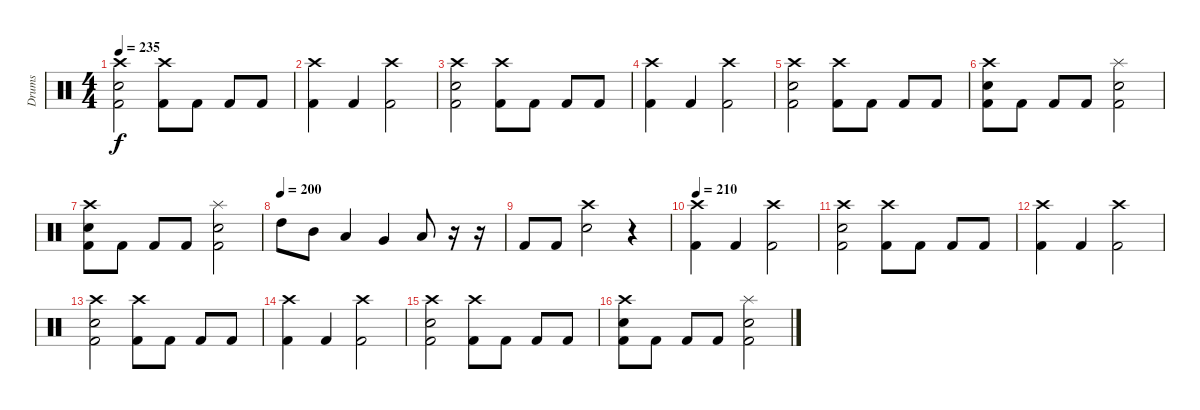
\track ("Drums" "Drums") {instrument percussion}
\staff {score}
\articulation defaults
\ts (4 4)
\tempo 235
\clef neutral
\ks c
("Crash high (hit)" "Snare (hit) 2" "Kick (hit) 2").2{dy f} ("Crash high (hit)" "Kick (hit) 2").8 "Kick (hit) 2".8 "Kick (hit) 2".8 "Kick (hit) 2".8 |
("Crash high (hit)" "Kick (hit) 2").4 "Kick (hit) 2".4 ("Crash high (hit)" "Kick (hit) 2").2 |
("Crash high (hit)" "Snare (hit) 2" "Kick (hit) 2").2 ("Crash high (hit)" "Kick (hit) 2").8 "Kick (hit) 2".8 "Kick (hit) 2".8 "Kick (hit) 2".8 |
("Crash high (hit)" "Kick (hit) 2").4 "Kick (hit) 2".4 ("Crash high (hit)" "Kick (hit) 2").2 |
("Crash high (hit)" "Snare (hit) 2" "Kick (hit) 2").2 ("Crash high (hit)" "Kick (hit) 2").8 "Kick (hit) 2".8 "Kick (hit) 2".8 "Kick (hit) 2".8 |
("Crash high (hit)" "Snare (hit) 2" "Kick (hit) 2").8 "Kick (hit) 2".8 "Kick (hit) 2".8 "Kick (hit) 2".8 ("Splash (hit)" "Snare (hit) 2" "Kick (hit) 2").2 |
("Crash high (hit)" "Snare (hit) 2" "Kick (hit) 2").8 "Kick (hit) 2".8 "Kick (hit) 2".8 "Kick (hit) 2".8 ("Splash (hit)" "Snare (hit) 2" "Kick (hit) 2").2 |
\tempo (200)
"High Tom (hit)".8 "Mid Tom (hit)".8 "Low Tom (hit)".4 "Very Low Tom (hit)".4 "Low Tom (hit)".8 r.16 r.16 |
"Kick (hit) 2".8 "Kick (hit) 2".8 ("Crash high (hit)" "Snare (hit) 2").2 r.4 |
\tempo 210
("Crash high (hit)" "Kick (hit) 2").4 "Kick (hit) 2".4 ("Crash high (hit)" "Kick (hit) 2").2 |
("Crash high (hit)" "Snare (hit) 2" "Kick (hit) 2").2 ("Crash high (hit)" "Kick (hit) 2").8 "Kick (hit) 2".8 "Kick (hit) 2".8 "Kick (hit) 2".8 |
("Crash high (hit)" "Kick (hit) 2").4 "Kick (hit) 2".4 ("Crash high (hit)" "Kick (hit) 2").2 |
("Crash high (hit)" "Snare (hit) 2" "Kick (hit) 2").2 ("Crash high (hit)" "Kick (hit) 2").8 "Kick (hit) 2".8 "Kick (hit) 2".8 "Kick (hit) 2".8 |
("Crash high (hit)" "Kick (hit) 2").4 "Kick (hit) 2".4 ("Crash high (hit)" "Kick (hit) 2").2 |
("Crash high (hit)" "Snare (hit) 2" "Kick (hit) 2").2 ("Crash high (hit)" "Kick (hit) 2").8 "Kick (hit) 2".8 "Kick (hit) 2".8 "Kick (hit) 2".8 |
("Crash high (hit)" "Snare (hit) 2" "Kick (hit) 2").8 "Kick (hit) 2".8 "Kick (hit) 2".8 "Kick (hit) 2".8 ("Splash (hit)" "Snare (hit) 2" "Kick (hit) 2").2
